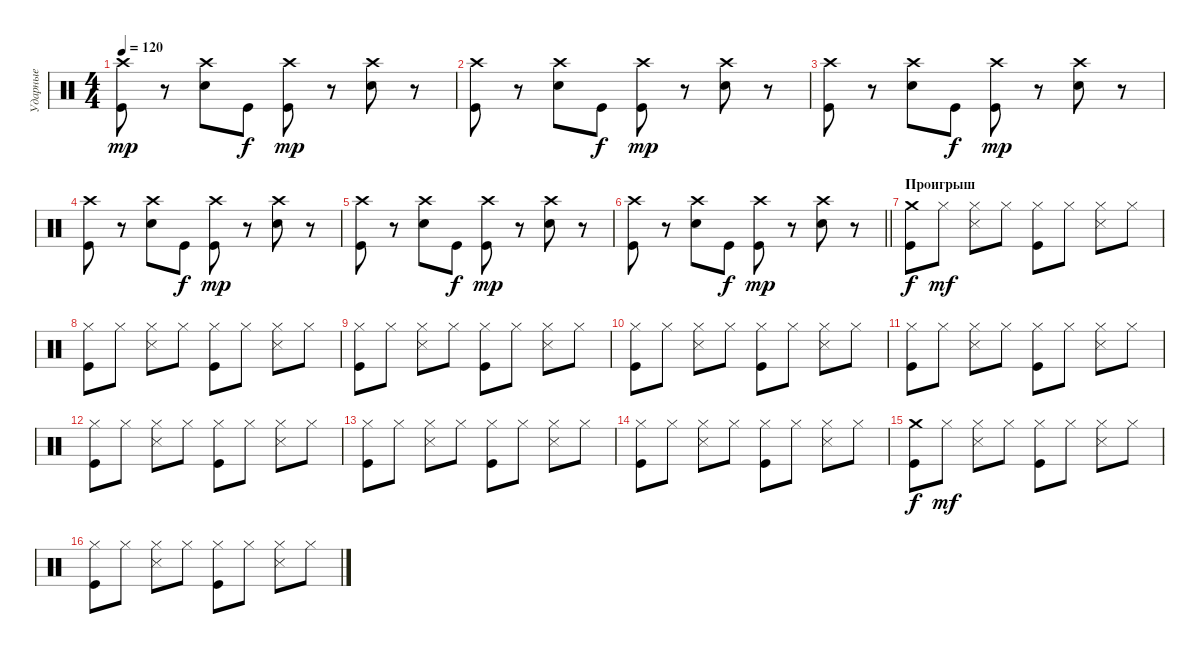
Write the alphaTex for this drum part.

\track ("Ударные" "Ударные") {instrument percussion}
\staff {score}
\articulation defaults
\ts (4 4)
\tempo 120
\clef neutral
\ks c
("Crash high (hit)" "Kick (hit)").8{dy mp} r.8 ("Crash high (hit)" "Electric Snare (hit)").8 "Kick (hit)".8{dy f} ("Crash high (hit)" "Kick (hit)").8{dy mp} r.8 ("Crash high (hit)" "Electric Snare (hit)").8 r.8 |
("Crash high (hit)" "Kick (hit)").8 r.8 ("Crash high (hit)" "Electric Snare (hit)").8 "Kick (hit)".8{dy f} ("Crash high (hit)" "Kick (hit)").8{dy mp} r.8 ("Crash high (hit)" "Electric Snare (hit)").8 r.8 |
("Crash high (hit)" "Kick (hit)").8 r.8 ("Crash high (hit)" "Electric Snare (hit)").8 "Kick (hit)".8{dy f} ("Crash high (hit)" "Kick (hit)").8{dy mp} r.8 ("Crash high (hit)" "Electric Snare (hit)").8 r.8 |
("Crash high (hit)" "Kick (hit)").8 r.8 ("Crash high (hit)" "Electric Snare (hit)").8 "Kick (hit)".8{dy f} ("Crash high (hit)" "Kick (hit)").8{dy mp} r.8 ("Crash high (hit)" "Electric Snare (hit)").8 r.8 |
("Crash high (hit)" "Kick (hit)").8 r.8 ("Crash high (hit)" "Electric Snare (hit)").8 "Kick (hit)".8{dy f} ("Crash high (hit)" "Kick (hit)").8{dy mp} r.8 ("Crash high (hit)" "Electric Snare (hit)").8 r.8 |
\barLineRight lightlight
("Crash high (hit)" "Kick (hit)").8 r.8 ("Crash high (hit)" "Electric Snare (hit)").8 "Kick (hit)".8{dy f} ("Crash high (hit)" "Kick (hit)").8{dy mp} r.8 ("Crash high (hit)" "Electric Snare (hit)").8 r.8 |
\section ("" "Проигрыш")
("Crash medium (hit)" "Kick (hit)").8{dy f} "Hi-Hat (closed)".8{dy mf} ("Hi-Hat (closed)" "Snare (side stick) 3").8 "Hi-Hat (closed)".8 ("Hi-Hat (closed)" "Kick (hit)").8 "Hi-Hat (closed)".8 ("Hi-Hat (closed)" "Snare (side stick) 3").8 "Hi-Hat (closed)".8 |
("Hi-Hat (closed)" "Kick (hit)").8 "Hi-Hat (closed)".8 ("Hi-Hat (closed)" "Snare (side stick) 3").8 "Hi-Hat (closed)".8 ("Hi-Hat (closed)" "Kick (hit)").8 "Hi-Hat (closed)".8 ("Hi-Hat (closed)" "Snare (side stick) 3").8 "Hi-Hat (closed)".8 |
("Hi-Hat (closed)" "Kick (hit)").8 "Hi-Hat (closed)".8 ("Hi-Hat (closed)" "Snare (side stick) 3").8 "Hi-Hat (closed)".8 ("Hi-Hat (closed)" "Kick (hit)").8 "Hi-Hat (closed)".8 ("Hi-Hat (closed)" "Snare (side stick) 3").8 "Hi-Hat (closed)".8 |
("Hi-Hat (closed)" "Kick (hit)").8 "Hi-Hat (closed)".8 ("Hi-Hat (closed)" "Snare (side stick) 3").8 "Hi-Hat (closed)".8 ("Hi-Hat (closed)" "Kick (hit)").8 "Hi-Hat (closed)".8 ("Hi-Hat (closed)" "Snare (side stick) 3").8 "Hi-Hat (closed)".8 |
("Hi-Hat (closed)" "Kick (hit)").8 "Hi-Hat (closed)".8 ("Hi-Hat (closed)" "Snare (side stick) 3").8 "Hi-Hat (closed)".8 ("Hi-Hat (closed)" "Kick (hit)").8 "Hi-Hat (closed)".8 ("Hi-Hat (closed)" "Snare (side stick) 3").8 "Hi-Hat (closed)".8 |
("Hi-Hat (closed)" "Kick (hit)").8 "Hi-Hat (closed)".8 ("Hi-Hat (closed)" "Snare (side stick) 3").8 "Hi-Hat (closed)".8 ("Hi-Hat (closed)" "Kick (hit)").8 "Hi-Hat (closed)".8 ("Hi-Hat (closed)" "Snare (side stick) 3").8 "Hi-Hat (closed)".8 |
("Hi-Hat (closed)" "Kick (hit)").8 "Hi-Hat (closed)".8 ("Hi-Hat (closed)" "Snare (side stick) 3").8 "Hi-Hat (closed)".8 ("Hi-Hat (closed)" "Kick (hit)").8 "Hi-Hat (closed)".8 ("Hi-Hat (closed)" "Snare (side stick) 3").8 "Hi-Hat (closed)".8 |
("Hi-Hat (closed)" "Kick (hit)").8 "Hi-Hat (closed)".8 ("Hi-Hat (closed)" "Snare (side stick) 3").8 "Hi-Hat (closed)".8 ("Hi-Hat (closed)" "Kick (hit)").8 "Hi-Hat (closed)".8 ("Hi-Hat (closed)" "Snare (side stick) 3").8 "Hi-Hat (closed)".8 |
("Crash medium (hit)" "Kick (hit)").8{dy f} "Hi-Hat (closed)".8{dy mf} ("Hi-Hat (closed)" "Snare (side stick) 3").8 "Hi-Hat (closed)".8 ("Hi-Hat (closed)" "Kick (hit)").8 "Hi-Hat (closed)".8 ("Hi-Hat (closed)" "Snare (side stick) 3").8 "Hi-Hat (closed)".8 |
("Hi-Hat (closed)" "Kick (hit)").8 "Hi-Hat (closed)".8 ("Hi-Hat (closed)" "Snare (side stick) 3").8 "Hi-Hat (closed)".8 ("Hi-Hat (closed)" "Kick (hit)").8 "Hi-Hat (closed)".8 ("Hi-Hat (closed)" "Snare (side stick) 3").8 "Hi-Hat (closed)".8
